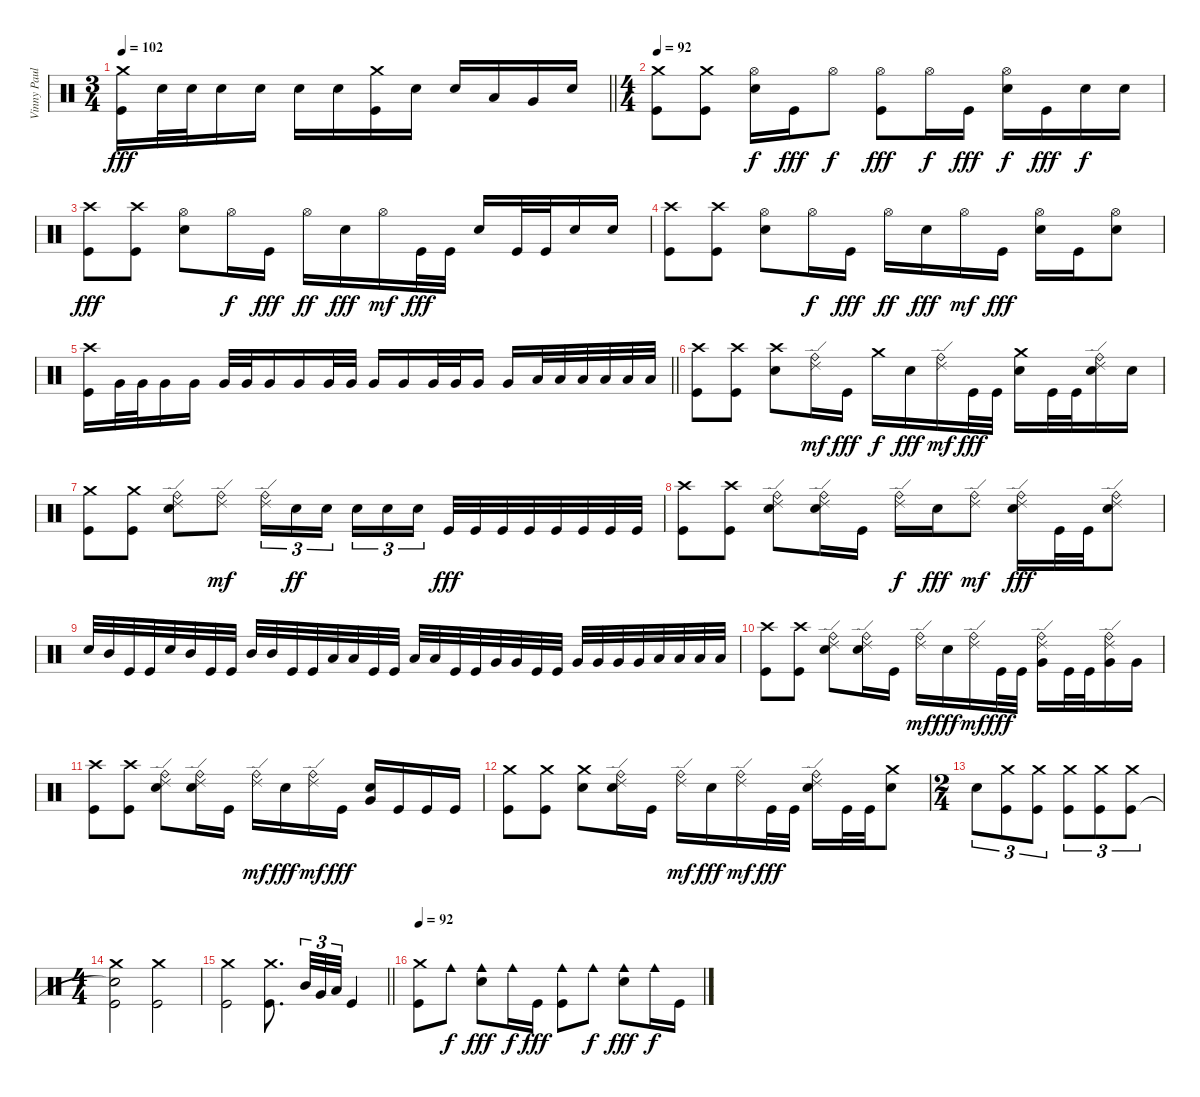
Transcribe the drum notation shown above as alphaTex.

\track ("Vinny Paul" "Vinny Paul") {instrument percussion}
\staff {score}
\articulation defaults
\ts (3 4)
\tempo 102
\clef neutral
\barLineRight lightlight
\ks c
("Crash medium (hit)" "Kick (hit)").16{dy fff} "Electric Snare (hit)".32 "Electric Snare (hit)".32 "Electric Snare (hit)".16 "Electric Snare (hit)".16 "Electric Snare (hit)".16 "Electric Snare (hit)".16 ("Crash medium (hit)" "Kick (hit)").16 "Electric Snare (hit)".16 "Electric Snare (hit)".16 "Low Tom (hit)".16 "Very Low Tom (hit)".16 "Electric Snare (hit)".16 |
\ts (4 4)
\section ("" "")
\tempo 92
("Crash medium (hit)" "Kick (hit)").8 ("Crash medium (hit)" "Kick (hit)").8 ("Hi-Hat (open)" "Electric Snare (hit)").16{dy f} "Kick (hit)".16{dy fff} "Hi-Hat (open)".8{dy f} ("Hi-Hat (open)" "Kick (hit)").8{dy fff} "Hi-Hat (open)".16{dy f} "Kick (hit)".16{dy fff} ("Hi-Hat (open)" "Electric Snare (hit)").16{dy f} "Kick (hit)".16{dy fff} "Electric Snare (hit)".16{dy f} "Electric Snare (hit)".16 |
("Crash high (hit)" "Kick (hit)").8{dy fff} ("Crash high (hit)" "Kick (hit)").8 ("Hi-Hat (open)" "Electric Snare (hit)").8 "Hi-Hat (open)".16{dy f} "Kick (hit)".16{dy fff} "Hi-Hat (open)".16{dy ff} "Electric Snare (hit)".16{dy fff} "Hi-Hat (open)".16{dy mf} "Kick (hit)".32{dy fff} "Kick (hit)".32 "Electric Snare (hit)".16 "Kick (hit)".32 "Kick (hit)".32 "Electric Snare (hit)".16 "Electric Snare (hit)".16 |
("Crash high (hit)" "Kick (hit)").8 ("Crash high (hit)" "Kick (hit)").8 ("Hi-Hat (open)" "Electric Snare (hit)").8 "Hi-Hat (open)".16{dy f} "Kick (hit)".16{dy fff} "Hi-Hat (open)".16{dy ff} "Electric Snare (hit)".16{dy fff} "Hi-Hat (open)".16{dy mf} "Kick (hit)".16{dy fff} ("Hi-Hat (open)" "Electric Snare (hit)").16 "Kick (hit)".16 ("Hi-Hat (open)" "Electric Snare (hit)").8 |
\barLineRight lightlight
("Crash high (hit)" "Kick (hit)").16 "Very Low Tom (hit)".32 "Very Low Tom (hit)".32 "Very Low Tom (hit)".16 "Very Low Tom (hit)".16 "Very Low Tom (hit)".32 "Very Low Tom (hit)".32 "Very Low Tom (hit)".16 "Very Low Tom (hit)".16 "Very Low Tom (hit)".32 "Very Low Tom (hit)".32 "Very Low Tom (hit)".16 "Very Low Tom (hit)".16 "Very Low Tom (hit)".32 "Very Low Tom (hit)".32 "Very Low Tom (hit)".16 "Very Low Tom (hit)".16 "Low Floor Tom (hit)".32 "Low Floor Tom (hit)".32 "Low Floor Tom (hit)".32 "Low Floor Tom (hit)".32 "Low Floor Tom (hit)".32 "Low Floor Tom (hit)".32 |
\section ("" "")
("Crash high (hit)" "Kick (hit)").8 ("Crash high (hit)" "Kick (hit)").8 ("Crash high (hit)" "Electric Snare (hit)").8 ("Ride (edge) 2" "Ride (bell)").16{dy mf} "Kick (hit)".16{dy fff} "Crash medium (hit)".16{dy f} "Electric Snare (hit)".16{dy fff} ("Ride (edge) 2" "Ride (bell)").16{dy mf} "Kick (hit)".32{dy fff} "Kick (hit)".32 ("Crash medium (hit)" "Electric Snare (hit)").16 "Kick (hit)".32 "Kick (hit)".32 ("Ride (bell)" "Ride (edge) 2" "Electric Snare (hit)").16 "Electric Snare (hit)".16 |
("Crash medium (hit)" "Kick (hit)").8 ("Crash medium (hit)" "Kick (hit)").8 ("Ride (edge) 2" "Ride (bell)" "Electric Snare (hit)").8 ("Ride (edge) 2" "Ride (bell)").8{dy mf} ("Ride (edge) 2" "Ride (bell)").16{tu (3 2)} "Electric Snare (hit)".16{tu (3 2) dy ff} "Electric Snare (hit)".16{tu (3 2) beam splitsecondary} "Electric Snare (hit)".16{tu (3 2)} "Electric Snare (hit)".16{tu (3 2)} "Electric Snare (hit)".16{tu (3 2)} "Kick (hit)".32{dy fff} "Kick (hit)".32 "Kick (hit)".32 "Kick (hit)".32 "Kick (hit)".32 "Kick (hit)".32 "Kick (hit)".32 "Kick (hit)".32 |
("Crash high (hit)" "Kick (hit)").8 ("Crash high (hit)" "Kick (hit)").8 ("Ride (edge) 2" "Ride (bell)" "Electric Snare (hit)").8 ("Ride (edge) 2" "Ride (bell)" "Electric Snare (hit)").16 "Kick (hit)".16 ("Ride (edge) 2" "Ride (bell)").16{dy f} "Electric Snare (hit)".16{dy fff} ("Ride (edge) 2" "Ride (bell)").8{dy mf} ("Ride (edge) 2" "Ride (bell)" "Electric Snare (hit)").16{dy fff} "Kick (hit)".32 "Kick (hit)".32 ("Ride (edge) 2" "Ride (bell)" "Electric Snare (hit)").8 |
"Electric Snare (hit)".32 "Mid Tom (hit)".32 "Kick (hit)".32 "Kick (hit)".32 "Electric Snare (hit)".32 "Mid Tom (hit)".32 "Kick (hit)".32 "Kick (hit)".32 "Mid Tom (hit)".32 "Mid Tom (hit)".32 "Kick (hit)".32 "Kick (hit)".32 "Low Tom (hit)".32 "Low Tom (hit)".32 "Kick (hit)".32 "Kick (hit)".32 "Low Tom (hit)".32 "Low Tom (hit)".32 "Kick (hit)".32 "Kick (hit)".32 "Very Low Tom (hit)".32 "Very Low Tom (hit)".32 "Kick (hit)".32 "Kick (hit)".32 "Very Low Tom (hit)".32 "Very Low Tom (hit)".32 "Very Low Tom (hit)".32 "Very Low Tom (hit)".32 "Low Floor Tom (hit)".32 "Low Floor Tom (hit)".32 "Low Floor Tom (hit)".32 "Low Floor Tom (hit)".32 |
("Crash high (hit)" "Kick (hit)").8 ("Crash high (hit)" "Kick (hit)").8 ("Ride (edge) 2" "Ride (bell)" "Electric Snare (hit)").8 ("Ride (edge) 2" "Ride (bell)" "Electric Snare (hit)").16 "Kick (hit)".16 ("Ride (edge) 2" "Ride (bell)").16{dy mf} "Electric Snare (hit)".16{dy fff} ("Ride (edge) 2" "Ride (bell)").16{dy mf} "Kick (hit)".32{dy fff} "Kick (hit)".32 ("Ride (edge) 2" "Ride (bell)" "Very Low Tom (hit)").16 "Kick (hit)".32 "Kick (hit)".32 ("Ride (edge) 2" "Ride (bell)" "Very Low Tom (hit)").16 "Very Low Tom (hit)".16 |
("Crash high (hit)" "Kick (hit)").8 ("Crash high (hit)" "Kick (hit)").8 ("Ride (edge) 2" "Ride (bell)" "Electric Snare (hit)").8 ("Ride (edge) 2" "Ride (bell)" "Electric Snare (hit)").16 "Kick (hit)".16 ("Ride (edge) 2" "Ride (bell)").16{dy mf} "Electric Snare (hit)".16{dy fff} ("Ride (edge) 2" "Ride (bell)").16{dy mf} "Kick (hit)".16{dy fff} ("Electric Snare (hit)" "Very Low Tom (hit)").16 "Kick (hit)".16 "Kick (hit)".16 "Kick (hit)".16 |
("Crash medium (hit)" "Kick (hit)").8 ("Crash medium (hit)" "Kick (hit)").8 ("Crash medium (hit)" "Electric Snare (hit)").8 ("Ride (edge) 2" "Ride (bell)" "Electric Snare (hit)").16 "Kick (hit)".16 ("Ride (edge) 2" "Ride (bell)").16{dy mf} "Electric Snare (hit)".16{dy fff} ("Ride (edge) 2" "Ride (bell)").16{dy mf} "Kick (hit)".32{dy fff} "Kick (hit)".32 ("Ride (edge) 2" "Ride (bell)" "Electric Snare (hit)").16 "Kick (hit)".32 "Kick (hit)".32 ("Crash medium (hit)" "Electric Snare (hit)").8 |
\ts (2 4)
"Electric Snare (hit)".8{tu (3 2)} ("Crash medium (hit)" "Kick (hit)").8{tu (3 2)} ("Crash medium (hit)" "Kick (hit)").8{tu (3 2)} ("Crash medium (hit)" "Kick (hit)").8{tu (3 2)} ("Crash medium (hit)" "Kick (hit)").8{tu (3 2)} ("Crash medium (hit)" "Kick (hit)").8{tu (3 2)} |
\ts (4 4)
("Crash medium (hit)" "Snare (hit)"{t} "Kick (hit)").2 ("Crash medium (hit)" "Kick (hit)").2 |
\barLineRight lightlight
("Crash medium (hit)" "Kick (hit)").2 ("Crash medium (hit)" "Kick (hit)").8{d} "Mid Tom (hit)".32{tu (3 2)} "Very Low Tom (hit)".32{tu (3 2)} "Low Floor Tom (hit)".32{tu (3 2)} "Kick (hit)".4 |
\section ("" "")
\tempo 92
("Crash medium (hit)" "Kick (hit)").8 "Cowbell medium (hit)".8{dy f} ("Cowbell medium (hit)" "Electric Snare (hit)").8{dy fff} "Cowbell medium (hit)".16{dy f} "Kick (hit)".16{dy fff} ("Cowbell medium (hit)" "Kick (hit)").8 "Cowbell medium (hit)".8{dy f} ("Cowbell medium (hit)" "Electric Snare (hit)").8{dy fff} "Cowbell medium (hit)".16{dy f} "Kick (hit)".16
